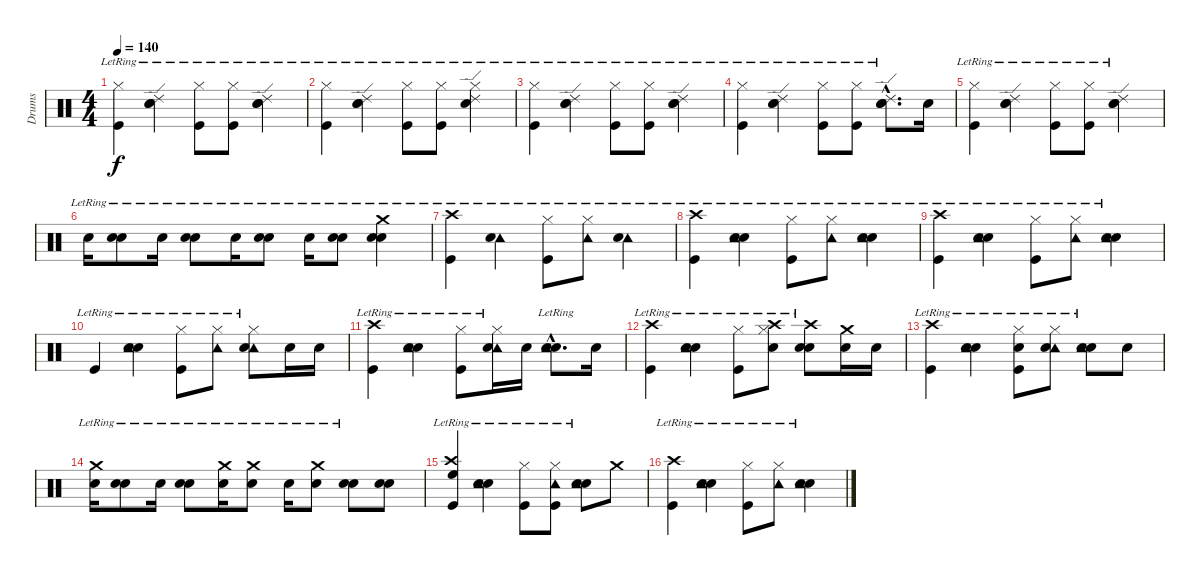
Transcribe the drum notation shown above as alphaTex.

\track ("Drums" "Drums") {instrument percussion}
\staff {score}
\articulation defaults
\ts (4 4)
\tempo 140
\clef neutral
\ks c
("Hi-Hat (closed)"{lr} "Kick (hit)"{lr}).4{dy f} ("Electric Snare (hit)"{lr} "Ride (edge) 2"{lr} "Snare (hit) 2"{lr}).4 ("Hi-Hat (closed)"{lr} "Kick (hit)"{lr}).8 ("Hi-Hat (closed)"{lr} "Kick (hit)").8 ("Electric Snare (hit)"{lr} "Ride (edge) 2"{lr} "Snare (hit) 2"{lr}).4 |
("Hi-Hat (closed)"{lr} "Kick (hit)"{lr}).4 ("Electric Snare (hit)"{lr} "Ride (edge) 2"{lr} "Snare (hit) 2"{lr}).4 ("Hi-Hat (closed)"{lr} "Kick (hit)"{lr}).8 ("Hi-Hat (closed)"{lr} "Kick (hit)").8 ("Hi-Hat (closed)"{lr} "Ride (edge) 2"{lr} "Snare (hit) 2"{lr}).4 |
("Hi-Hat (closed)"{lr} "Kick (hit)"{lr}).4 ("Electric Snare (hit)"{lr} "Ride (edge) 2"{lr} "Snare (hit) 2"{lr}).4 ("Hi-Hat (closed)"{lr} "Kick (hit)"{lr}).8 ("Hi-Hat (closed)"{lr} "Kick (hit)").8 ("Electric Snare (hit)"{lr} "Ride (edge) 2"{lr} "Snare (hit) 2"{lr}).4 |
("Hi-Hat (closed)"{lr} "Kick (hit)"{lr}).4 ("Electric Snare (hit)"{lr} "Ride (edge) 2"{lr} "Snare (hit) 2"{lr}).4 ("Hi-Hat (closed)"{lr} "Kick (hit)"{lr}).8 ("Hi-Hat (closed)"{lr} "Kick (hit)").8 ("Electric Snare (hit)"{hac lr} "Ride (edge) 2"{hac lr} "Snare (hit) 2"{hac lr}).8{d} "Snare (hit) 2".16 |
("Hi-Hat (closed)"{lr} "Kick (hit)"{lr}).4 ("Electric Snare (hit)"{lr} "Ride (edge) 2"{lr} "Snare (hit) 2"{lr}).4 ("Hi-Hat (closed)"{lr} "Kick (hit)"{lr}).8 ("Hi-Hat (closed)"{lr} "Kick (hit)").8 ("Electric Snare (hit)"{lr} "Ride (edge) 2"{lr} "Snare (hit) 2"{lr}).4 |
"Snare (hit) 2"{lr}.16 ("Snare (hit) 2"{lr} "Electric Snare (hit)"{lr}).8 "Snare (hit) 2"{lr}.16 ("Snare (hit) 2"{lr} "Electric Snare (hit)"{lr}).8 "Snare (hit) 2"{lr}.16 ("Snare (hit) 2"{lr} "Electric Snare (hit)"{lr}).8 "Snare (hit) 2"{lr}.16 ("Snare (hit) 2"{lr} "Electric Snare (hit)"{lr}).8 ("Snare (hit) 2"{lr} "Electric Snare (hit)"{lr} "Crash medium (hit)"{lr}).4 |
("Crash high (hit)" "Kick (hit)"{lr}).4 ("Tambourine (hit)"{lr} "Snare (hit) 2").4 ("Hi-Hat (closed)"{lr} "Kick (hit)").8 ("Hi-Hat (closed)"{lr} "Tambourine (hit)").8 ("Tambourine (hit)"{lr} "Snare (hit) 2"{lr}).4 |
("Crash high (hit)" "Kick (hit)"{lr}).4 ("Electric Snare (hit)"{lr} "Tambourine (hit)"{lr} "Snare (hit) 2"{lr}).4 ("Hi-Hat (closed)"{lr} "Kick (hit)"{lr}).8 ("Hi-Hat (closed)"{lr} "Tambourine (hit)").8 ("Electric Snare (hit)"{lr} "Tambourine (hit)"{lr} "Snare (hit) 2"{lr}).4 |
("Crash high (hit)" "Kick (hit)"{lr}).4 ("Electric Snare (hit)"{lr} "Tambourine (hit)"{lr} "Snare (hit) 2"{lr}).4 ("Hi-Hat (closed)"{lr} "Kick (hit)"{lr}).8 ("Hi-Hat (closed)"{lr} "Tambourine (hit)").8 ("Electric Snare (hit)"{lr} "Tambourine (hit)"{lr} "Snare (hit) 2"{lr}).4 |
"Kick (hit)"{lr}.4 ("Electric Snare (hit)"{lr} "Tambourine (hit)"{lr} "Snare (hit) 2"{lr}).4 ("Hi-Hat (closed)"{lr} "Kick (hit)"{lr}).8 ("Hi-Hat (closed)"{lr} "Tambourine (hit)").8 ("Hi-Hat (closed)"{lr} "Tambourine (hit)"{lr} "Snare (hit) 2"{lr}).8 "Snare (hit) 2".16 "Snare (hit) 2".16 |
("Crash high (hit)"{lr} "Kick (hit)"{lr}).4 ("Electric Snare (hit)"{lr} "Tambourine (hit)"{lr} "Snare (hit) 2"{lr}).4 ("Hi-Hat (closed)"{lr} "Kick (hit)"{lr}).8 ("Hi-Hat (closed)"{lr} "Tambourine (hit)" "Snare (hit) 2").16 "Snare (hit) 2".16 ("Electric Snare (hit)"{hac lr} "Tambourine (hit)"{hac lr} "Snare (hit) 2"{hac lr}).8{d} "Snare (hit) 2".16 |
("Crash high (hit)" "Kick (hit)"{lr}).4 ("Electric Snare (hit)"{lr} "Tambourine (hit)"{lr} "Snare (hit) 2"{lr}).4 ("Hi-Hat (closed)"{lr} "Kick (hit)"{lr}).8 ("Hi-Hat (closed)"{lr} "Crash high (hit)" "Snare (hit) 2").8 ("Electric Snare (hit)"{lr} "Crash high (hit)"{lr} "Snare (hit) 2"{lr}).8 ("Crash medium (hit)" "Snare (hit) 2").16 "Snare (hit) 2".16 |
("Crash high (hit)"{lr} "Kick (hit)"{lr}).4 ("Electric Snare (hit)"{lr} "Tambourine (hit)"{lr} "Snare (hit) 2"{lr}).4 ("Hi-Hat (closed)"{lr} "Kick (hit)"{lr} "Snare (hit) 2").8 ("Hi-Hat (closed)"{lr} "Tambourine (hit)" "Snare (hit) 2").8 ("Electric Snare (hit)"{lr} "Tambourine (hit)"{lr} "Snare (hit) 2").8 "Snare (hit) 2".8 |
("Snare (hit) 2"{lr} "Crash medium (hit)").16 ("Snare (hit) 2"{lr} "Electric Snare (hit)"{lr}).8 "Snare (hit) 2"{lr}.16 ("Snare (hit) 2"{lr} "Electric Snare (hit)").8 ("Snare (hit) 2"{lr} "Crash medium (hit)").16 ("Snare (hit) 2"{lr} "Crash medium (hit)"{lr}).8 "Snare (hit) 2"{lr}.16 ("Snare (hit) 2"{lr} "Crash medium (hit)"{lr}).8 ("Snare (hit) 2"{lr} "Electric Snare (hit)"{lr}).8 ("Snare (hit) 2" "Electric Snare (hit)").8 |
("Crash high (hit)"{lr} "Kick (hit)"{lr} "High Floor Tom (hit)"{lr}).4 ("Electric Snare (hit)"{lr} "Tambourine (hit)"{lr} "Snare (hit) 2"{lr}).4 ("Hi-Hat (closed)"{lr} "Kick (hit)"{lr}).8 ("Hi-Hat (closed)"{lr} "Tambourine (hit)" "Kick (hit)").8 ("Electric Snare (hit)"{lr} "Tambourine (hit)"{lr} "Snare (hit) 2"{lr}).8 "Crash medium (hit)".8 |
("Crash high (hit)"{lr} "Kick (hit)"{lr}).4 ("Electric Snare (hit)"{lr} "Tambourine (hit)"{lr} "Snare (hit) 2"{lr}).4 ("Hi-Hat (closed)"{lr} "Kick (hit)"{lr}).8 ("Hi-Hat (closed)"{lr} "Tambourine (hit)").8 ("Electric Snare (hit)"{lr} "Tambourine (hit)"{lr} "Snare (hit) 2"{lr}).4
